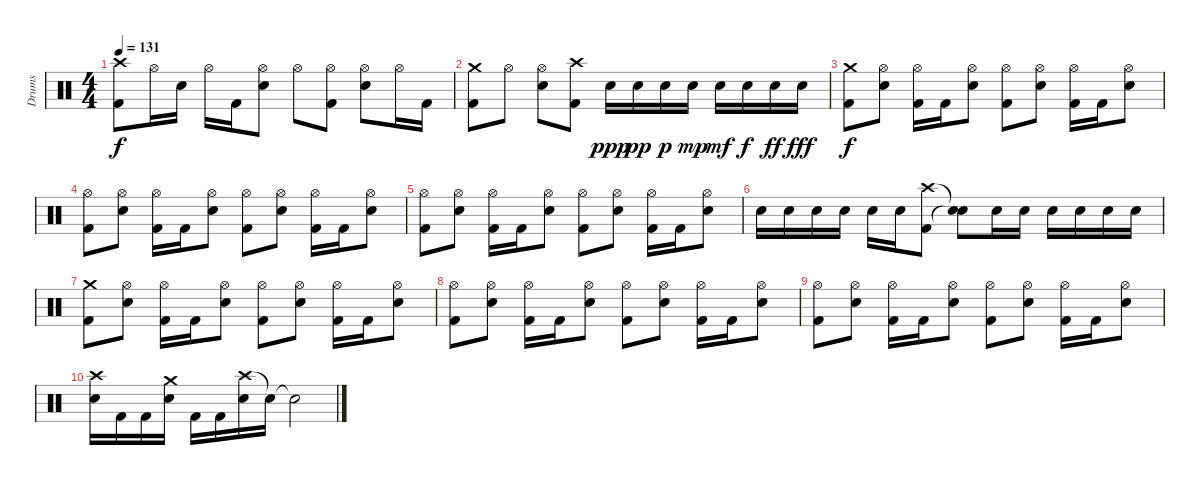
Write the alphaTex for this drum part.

\track ("Drums" "Drums") {instrument percussion}
\staff {score}
\articulation defaults
\ts (4 4)
\tempo 131
\clef neutral
\ks c
("Crash high (hit)" "Kick (hit) 2").8{dy f} "Hi-Hat (open)".16 "Electric Snare (hit)".16 "Hi-Hat (open)".16 "Kick (hit) 2".16 ("Hi-Hat (open)" "Electric Snare (hit)").8 "Hi-Hat (open)".8 ("Hi-Hat (open)" "Kick (hit) 2").8 ("Hi-Hat (open)" "Electric Snare (hit)").8 "Hi-Hat (open)".16 "Kick (hit) 2".16 |
("Crash medium (hit)" "Kick (hit) 2").8 "Hi-Hat (open)".8 ("Hi-Hat (open)" "Electric Snare (hit)").8 ("Crash high (hit)" "Kick (hit) 2").8 "Electric Snare (hit)".16{dy ppp} "Electric Snare (hit)".16{dy pp} "Electric Snare (hit)".16{dy p} "Electric Snare (hit)".16{dy mp} "Electric Snare (hit)".16{dy mf} "Electric Snare (hit)".16{dy f} "Electric Snare (hit)".16{dy ff} "Electric Snare (hit)".16{dy fff} |
("Crash medium (hit)" "Kick (hit) 2").8{dy f} ("Hi-Hat (open)" "Electric Snare (hit)").8 ("Hi-Hat (open)" "Kick (hit) 2").16 "Kick (hit) 2".16 ("Hi-Hat (open)" "Electric Snare (hit)").8 ("Hi-Hat (open)" "Kick (hit) 2").8 ("Hi-Hat (open)" "Electric Snare (hit)").8 ("Hi-Hat (open)" "Kick (hit) 2").16 "Kick (hit) 2".16 ("Hi-Hat (open)" "Electric Snare (hit)").8 |
("Hi-Hat (open)" "Kick (hit) 2").8 ("Hi-Hat (open)" "Electric Snare (hit)").8 ("Hi-Hat (open)" "Kick (hit) 2").16 "Kick (hit) 2".16 ("Hi-Hat (open)" "Electric Snare (hit)").8 ("Hi-Hat (open)" "Kick (hit) 2").8 ("Hi-Hat (open)" "Electric Snare (hit)").8 ("Hi-Hat (open)" "Kick (hit) 2").16 "Kick (hit) 2".16 ("Hi-Hat (open)" "Electric Snare (hit)").8 |
("Hi-Hat (open)" "Kick (hit) 2").8 ("Hi-Hat (open)" "Electric Snare (hit)").8 ("Hi-Hat (open)" "Kick (hit) 2").16 "Kick (hit) 2".16 ("Hi-Hat (open)" "Electric Snare (hit)").8 ("Hi-Hat (open)" "Kick (hit) 2").8 ("Hi-Hat (open)" "Electric Snare (hit)").8 ("Hi-Hat (open)" "Kick (hit) 2").16 "Kick (hit) 2".16 ("Hi-Hat (open)" "Electric Snare (hit)").8 |
"Electric Snare (hit)".16 "Electric Snare (hit)".16 "Electric Snare (hit)".16 "Electric Snare (hit)".16 "Electric Snare (hit)".16 "Electric Snare (hit)".16 ("Crash high (hit)" "Kick (hit) 2").8 ("Snare (hit)"{t} "Snare (hit)"{t}).8 "Electric Snare (hit)".16 "Electric Snare (hit)".16 "Electric Snare (hit)".16 "Electric Snare (hit)".16 "Electric Snare (hit)".16 "Electric Snare (hit)".16 |
("Crash medium (hit)" "Kick (hit) 2").8 ("Hi-Hat (open)" "Electric Snare (hit)").8 ("Hi-Hat (open)" "Kick (hit) 2").16 "Kick (hit) 2".16 ("Hi-Hat (open)" "Electric Snare (hit)").8 ("Hi-Hat (open)" "Kick (hit) 2").8 ("Hi-Hat (open)" "Electric Snare (hit)").8 ("Hi-Hat (open)" "Kick (hit) 2").16 "Kick (hit) 2".16 ("Hi-Hat (open)" "Electric Snare (hit)").8 |
("Hi-Hat (open)" "Kick (hit) 2").8 ("Hi-Hat (open)" "Electric Snare (hit)").8 ("Hi-Hat (open)" "Kick (hit) 2").16 "Kick (hit) 2".16 ("Hi-Hat (open)" "Electric Snare (hit)").8 ("Hi-Hat (open)" "Kick (hit) 2").8 ("Hi-Hat (open)" "Electric Snare (hit)").8 ("Hi-Hat (open)" "Kick (hit) 2").16 "Kick (hit) 2".16 ("Hi-Hat (open)" "Electric Snare (hit)").8 |
("Hi-Hat (open)" "Kick (hit) 2").8 ("Hi-Hat (open)" "Electric Snare (hit)").8 ("Hi-Hat (open)" "Kick (hit) 2").16 "Kick (hit) 2".16 ("Hi-Hat (open)" "Electric Snare (hit)").8 ("Hi-Hat (open)" "Kick (hit) 2").8 ("Hi-Hat (open)" "Electric Snare (hit)").8 ("Hi-Hat (open)" "Kick (hit) 2").16 "Kick (hit) 2".16 ("Hi-Hat (open)" "Electric Snare (hit)").8 |
("Crash high (hit)" "Electric Snare (hit)").16 "Kick (hit) 2".16 "Kick (hit) 2".16 ("Crash medium (hit)" "Electric Snare (hit)").16 "Kick (hit) 2".16 "Kick (hit) 2".16 ("Crash high (hit)" "Electric Snare (hit)").16 "Snare (hit)"{t}.16 "Snare (hit)"{t}.2
